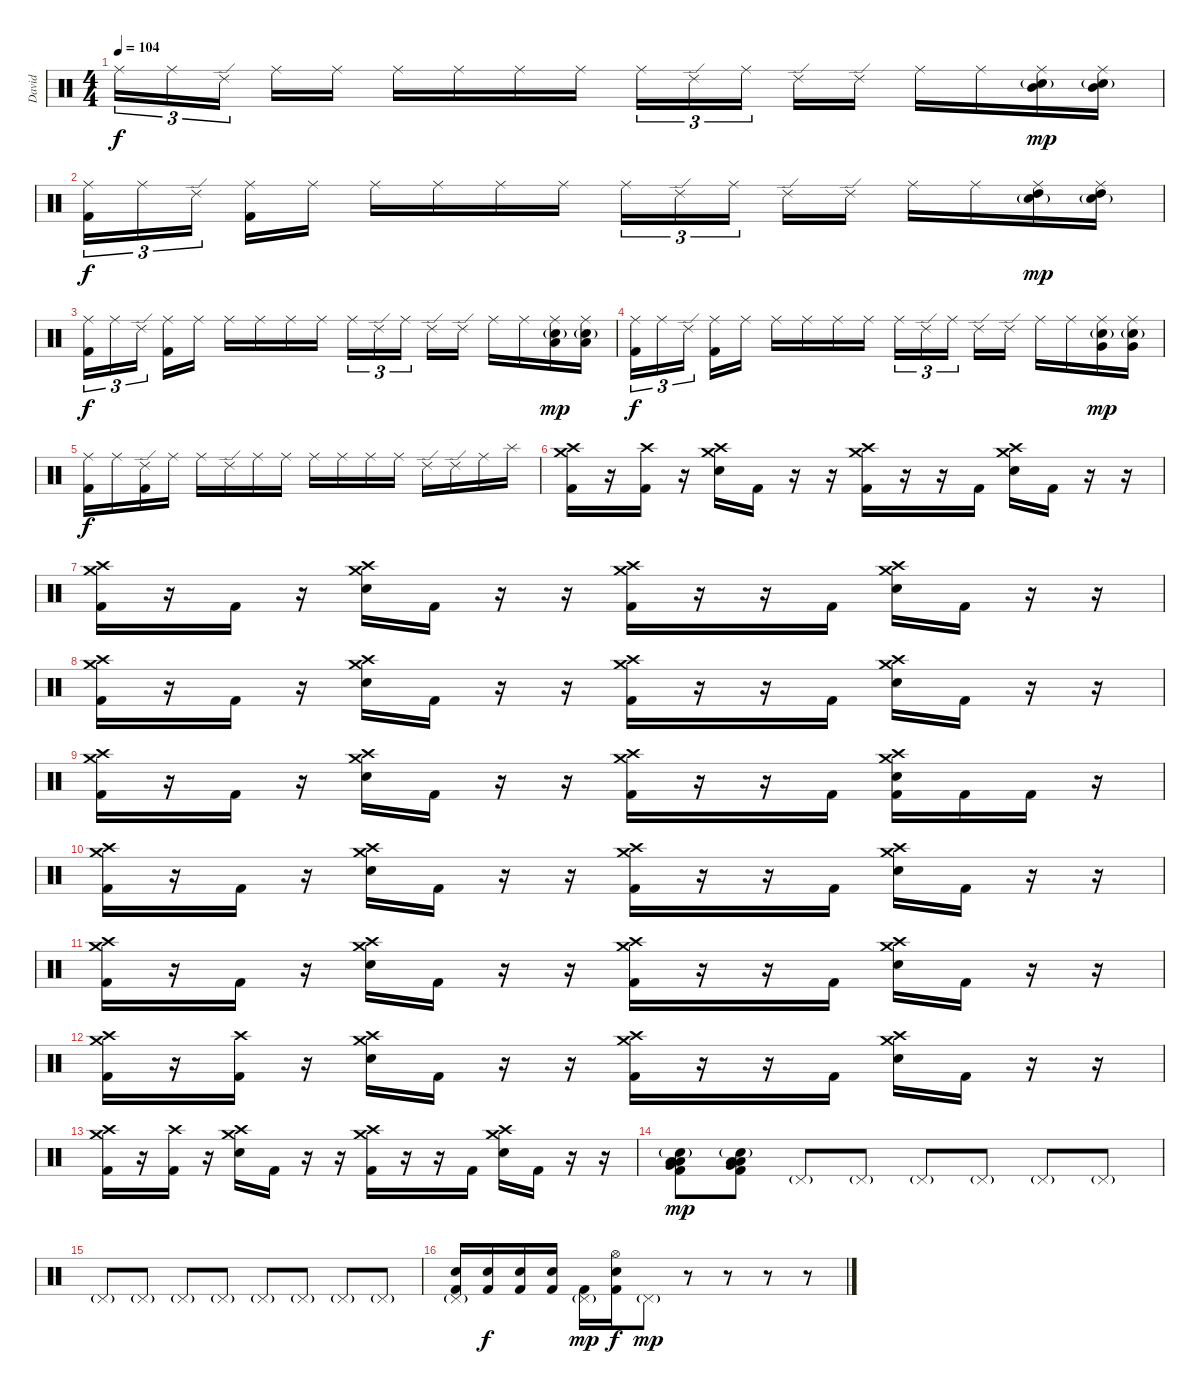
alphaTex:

\track ("David" "David") {instrument percussion}
\staff {score}
\articulation defaults
\ts (4 4)
\tempo 104
\clef neutral
\ks c "Ride (middle)".16{tu (3 2) dy f} "Ride (middle)".16{tu (3 2)} "Ride (edge) 2".16{tu (3 2)} "Ride (middle)".16 "Ride (middle)".16 "Ride (middle)".16 "Ride (middle)".16 "Ride (middle)".16 "Ride (middle)".16 "Ride (middle)".16{tu (3 2)} "Ride (edge) 2".16{tu (3 2)} "Ride (middle)".16{tu (3 2)} "Ride (edge) 2".16 "Ride (edge) 2".16 "Ride (middle)".16 "Ride (middle)".16
("Ride (middle)" "Electric Snare (hit)"{g} "Mid Tom (hit)").16{dy mp} ("Ride (middle)" "Electric Snare (hit)"{g} "Mid Tom (hit)").16 |
("Ride (middle)" "Kick (hit) 2").16{tu (3 2) dy f} "Ride (middle)".16{tu (3 2)} "Ride (edge) 2".16{tu (3 2)} ("Ride (middle)" "Kick (hit) 2").16 "Ride (middle)".16 "Ride (middle)".16 "Ride (middle)".16 "Ride (middle)".16 "Ride (middle)".16 "Ride (middle)".16{tu (3 2)} "Ride (edge) 2".16{tu (3 2)} "Ride (middle)".16{tu (3 2)} "Ride (edge) 2".16 "Ride (edge) 2".16 "Ride (middle)".16 "Ride (middle)".16 ("Ride (middle)" "Electric Snare (hit)"{g} "High Tom (hit)").16{dy mp} ("Ride (middle)" "Electric Snare (hit)"{g} "High Tom (hit)").16 |
("Ride (middle)" "Kick (hit) 2").16{tu (3 2) dy f} "Ride (middle)".16{tu (3 2)} "Ride (edge) 2".16{tu (3 2)} ("Ride (middle)" "Kick (hit) 2").16 "Ride (middle)".16 "Ride (middle)".16 "Ride (middle)".16 "Ride (middle)".16 "Ride (middle)".16 "Ride (middle)".16{tu (3 2)} "Ride (edge) 2".16{tu (3 2)} "Ride (middle)".16{tu (3 2)} "Ride (edge) 2".16 "Ride (edge) 2".16 "Ride (middle)".16 "Ride (middle)".16 ("Ride (middle)" "Electric Snare (hit)"{g} "Low Tom (hit)").16{dy mp} ("Ride (middle)" "Electric Snare (hit)"{g} "Low Tom (hit)").16 |
("Ride (middle)" "Kick (hit) 2").16{tu (3 2) dy f} "Ride (middle)".16{tu (3 2)} "Ride (edge) 2".16{tu (3 2)} ("Ride (middle)" "Kick (hit) 2").16 "Ride (middle)".16 "Ride (middle)".16 "Ride (middle)".16 "Ride (middle)".16 "Ride (middle)".16 "Ride (middle)".16{tu (3 2)} "Ride (edge) 2".16{tu (3 2)} "Ride (middle)".16{tu (3 2)} "Ride (edge) 2".16 "Ride (edge) 2".16 "Ride (middle)".16 "Ride (middle)".16 ("Ride (middle)" "Electric Snare (hit)"{g} "Very Low Tom (hit)").16{dy mp} ("Ride (middle)" "Electric Snare (hit)"{g} "Very Low Tom (hit)").16 |
("Ride (middle)" "Kick (hit) 2").16{dy f} "Ride (middle)".16 ("Ride (edge) 2" "Kick (hit) 2").16 "Ride (middle)".16 "Ride (middle)".16 "Ride (edge) 2".16 "Ride (middle)".16 "Ride (middle)".16 "Ride (middle)".16 "Ride (middle)".16 "Ride (middle)".16 "Ride (middle)".16 "Ride (edge) 2".16 "Ride (edge) 2".16 "Ride (middle)".16 "Splash (hit)".16 |
("Crash high (hit)" "Crash medium (hit)" "Kick (hit) 2").16{volume 16} r.16 ("Crash high (hit)" "Kick (hit) 2").16 r.16 ("Crash high (hit)" "Crash medium (hit)" "Electric Snare (hit)").16 "Kick (hit) 2".16 r.16 r.16 ("Crash high (hit)" "Crash medium (hit)" "Kick (hit) 2").16 r.16 r.16 "Kick (hit) 2".16 ("Crash high (hit)" "Crash medium (hit)" "Electric Snare (hit)").16 "Kick (hit) 2".16 r.16 r.16 |
("Crash high (hit)" "Crash medium (hit)" "Kick (hit) 2").16 r.16 "Kick (hit) 2".16 r.16 ("Crash high (hit)" "Crash medium (hit)" "Electric Snare (hit)").16 "Kick (hit) 2".16 r.16 r.16 ("Crash high (hit)" "Crash medium (hit)" "Kick (hit) 2").16 r.16 r.16 "Kick (hit) 2".16 ("Crash high (hit)" "Crash medium (hit)" "Electric Snare (hit)").16 "Kick (hit) 2".16 r.16 r.16 |
("Crash high (hit)" "Crash medium (hit)" "Kick (hit) 2").16 r.16 "Kick (hit) 2".16 r.16 ("Crash high (hit)" "Crash medium (hit)" "Electric Snare (hit)").16 "Kick (hit) 2".16 r.16 r.16 ("Crash high (hit)" "Crash medium (hit)" "Kick (hit) 2").16 r.16 r.16 "Kick (hit) 2".16 ("Crash high (hit)" "Crash medium (hit)" "Electric Snare (hit)").16 "Kick (hit) 2".16 r.16 r.16 |
("Crash high (hit)" "Crash medium (hit)" "Kick (hit) 2").16 r.16 "Kick (hit) 2".16 r.16 ("Crash high (hit)" "Crash medium (hit)" "Electric Snare (hit)").16 "Kick (hit) 2".16 r.16 r.16 ("Crash high (hit)" "Crash medium (hit)" "Kick (hit) 2").16 r.16 r.16 "Kick (hit) 2".16 ("Crash high (hit)" "Crash medium (hit)" "Electric Snare (hit)" "Kick (hit) 2").16 "Kick (hit) 2".16 "Kick (hit) 2".16 r.16 |
("Crash high (hit)" "Crash medium (hit)" "Kick (hit) 2").16 r.16 "Kick (hit) 2".16 r.16 ("Crash high (hit)" "Crash medium (hit)" "Electric Snare (hit)").16 "Kick (hit) 2".16 r.16 r.16 ("Crash high (hit)" "Crash medium (hit)" "Kick (hit) 2").16 r.16 r.16 "Kick (hit) 2".16 ("Crash high (hit)" "Crash medium (hit)" "Electric Snare (hit)").16 "Kick (hit) 2".16 r.16 r.16 |
("Crash high (hit)" "Crash medium (hit)" "Kick (hit) 2").16 r.16 "Kick (hit) 2".16 r.16 ("Crash high (hit)" "Crash medium (hit)" "Electric Snare (hit)").16 "Kick (hit) 2".16 r.16 r.16 ("Crash high (hit)" "Crash medium (hit)" "Kick (hit) 2").16 r.16 r.16 "Kick (hit) 2".16 ("Crash high (hit)" "Crash medium (hit)" "Electric Snare (hit)").16 "Kick (hit) 2".16 r.16 r.16 |
("Crash high (hit)" "Crash medium (hit)" "Kick (hit) 2").16 r.16 ("Crash high (hit)" "Kick (hit) 2").16 r.16 ("Crash high (hit)" "Crash medium (hit)" "Electric Snare (hit)").16 "Kick (hit) 2".16 r.16 r.16 ("Crash high (hit)" "Crash medium (hit)" "Kick (hit) 2").16 r.16 r.16 "Kick (hit) 2".16 ("Crash high (hit)" "Crash medium (hit)" "Electric Snare (hit)").16 "Kick (hit) 2".16 r.16 r.16 |
("Crash high (hit)" "Crash medium (hit)" "Kick (hit) 2").16 r.16 ("Crash high (hit)" "Kick (hit) 2").16 r.16 ("Crash high (hit)" "Crash medium (hit)" "Electric Snare (hit)").16 "Kick (hit) 2".16 r.16 r.16 ("Crash high (hit)" "Crash medium (hit)" "Kick (hit) 2").16 r.16 r.16 "Kick (hit) 2".16 ("Crash high (hit)" "Crash medium (hit)" "Electric Snare (hit)").16 "Kick (hit) 2".16 r.16 r.16 |
("Electric Snare (hit)"{g} "Very Low Tom (hit)" "Low Floor Tom (hit)" "Low Floor Tom (hit)" "Kick (hit) 2").8{dy mp} ("Electric Snare (hit)"{g} "Very Low Tom (hit)" "Low Floor Tom (hit)" "Low Floor Tom (hit)" "Kick (hit) 2").8 "Pedal Hi-Hat (hit)"{g}.8 "Pedal Hi-Hat (hit)"{g}.8 "Pedal Hi-Hat (hit)"{g}.8 "Pedal Hi-Hat (hit)"{g}.8 "Pedal Hi-Hat (hit)"{g}.8 "Pedal Hi-Hat (hit)"{g}.8 |
"Pedal Hi-Hat (hit)"{g}.8 "Pedal Hi-Hat (hit)"{g}.8 "Pedal Hi-Hat (hit)"{g}.8 "Pedal Hi-Hat (hit)"{g}.8 "Pedal Hi-Hat (hit)"{g}.8 "Pedal Hi-Hat (hit)"{g}.8 "Pedal Hi-Hat (hit)"{g}.8 "Pedal Hi-Hat (hit)"{g}.8 |
("Pedal Hi-Hat (hit)"{g} "Electric Snare (hit)" "Kick (hit) 2").16 ("Electric Snare (hit)" "Kick (hit) 2").16{dy f} ("Electric Snare (hit)" "Kick (hit) 2").16 ("Electric Snare (hit)" "Kick (hit) 2").16 ("Pedal Hi-Hat (hit)"{g} "Kick (hit) 2").16{dy mp} ("Hi-Hat (open)" "Electric Snare (hit)" "Kick (hit) 2").16{dy f} "Pedal Hi-Hat (hit)"{g}.8{dy mp} r.8 r.8 r.8 r.8
